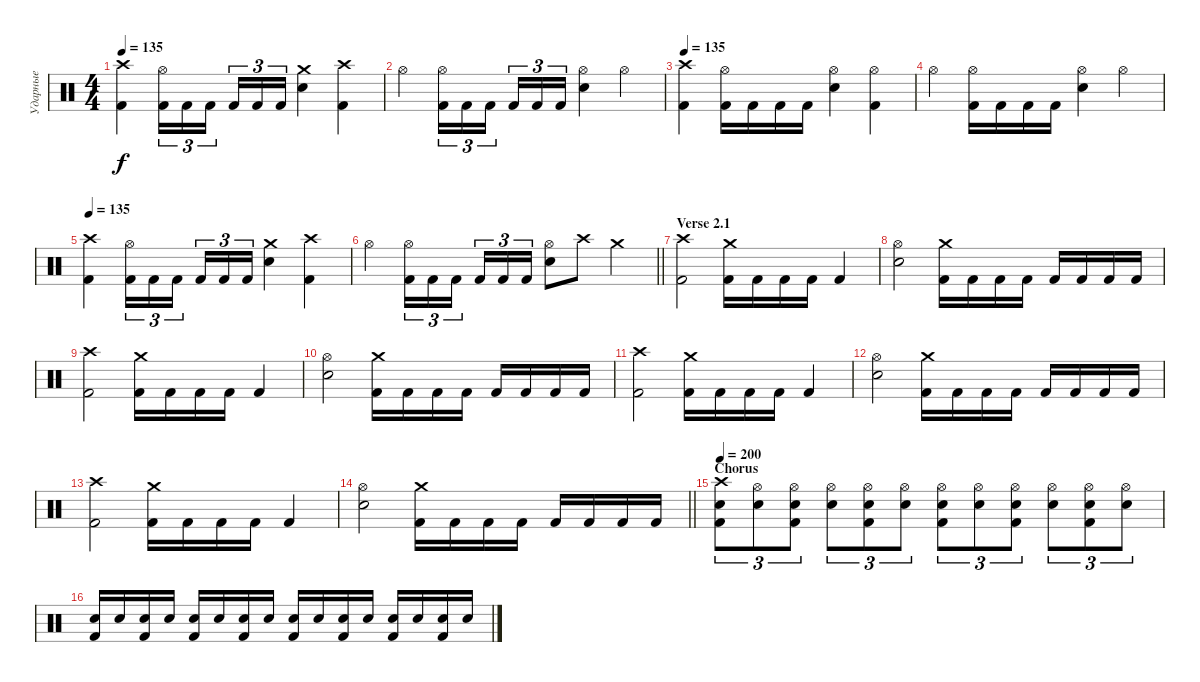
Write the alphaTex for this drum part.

\track ("Ударные" "Ударные") {instrument percussion}
\staff {score}
\articulation defaults
\ts (4 4)
\tempo 135
\clef neutral
\ks c
("Crash high (hit)" "Kick (hit) 2").4{dy f} ("Hi-Hat (open)" "Kick (hit) 2").16{tu (3 2)} "Kick (hit) 2".16{tu (3 2)} "Kick (hit) 2".16{tu (3 2) beam splitsecondary} "Kick (hit) 2".16{tu (3 2)} "Kick (hit) 2".16{tu (3 2)} "Kick (hit) 2".16{tu (3 2)} ("Crash medium (hit)" "Electric Snare (hit)").4 ("Crash high (hit)" "Kick (hit) 2").4 |
"Hi-Hat (open)".4 ("Hi-Hat (open)" "Kick (hit) 2").16{tu (3 2)} "Kick (hit) 2".16{tu (3 2)} "Kick (hit) 2".16{tu (3 2) beam splitsecondary} "Kick (hit) 2".16{tu (3 2)} "Kick (hit) 2".16{tu (3 2)} "Kick (hit) 2".16{tu (3 2)} ("Hi-Hat (open)" "Electric Snare (hit)").4 "Hi-Hat (open)".4 |
\tempo 135
("Crash high (hit)" "Kick (hit) 2").4 ("Hi-Hat (open)" "Kick (hit) 2").16 "Kick (hit) 2".16 "Kick (hit) 2".16 "Kick (hit) 2".16 ("Hi-Hat (open)" "Electric Snare (hit)").4 ("Hi-Hat (open)" "Kick (hit) 2").4 |
"Hi-Hat (open)".4 ("Hi-Hat (open)" "Kick (hit) 2").16 "Kick (hit) 2".16 "Kick (hit) 2".16 "Kick (hit) 2".16 ("Hi-Hat (open)" "Electric Snare (hit)").4 "Hi-Hat (open)".4 |
\tempo 135
("Crash high (hit)" "Kick (hit) 2").4 ("Hi-Hat (open)" "Kick (hit) 2").16{tu (3 2)} "Kick (hit) 2".16{tu (3 2)} "Kick (hit) 2".16{tu (3 2) beam splitsecondary} "Kick (hit) 2".16{tu (3 2)} "Kick (hit) 2".16{tu (3 2)} "Kick (hit) 2".16{tu (3 2)} ("Crash medium (hit)" "Electric Snare (hit)").4 ("Crash high (hit)" "Kick (hit) 2").4 |
\barLineRight lightlight "Hi-Hat (open)".4
("Hi-Hat (open)" "Kick (hit) 2").16{tu (3 2)} "Kick (hit) 2".16{tu (3 2)} "Kick (hit) 2".16{tu (3 2) beam splitsecondary} "Kick (hit) 2".16{tu (3 2)} "Kick (hit) 2".16{tu (3 2)} "Kick (hit) 2".16{tu (3 2)} ("Hi-Hat (open)" "Electric Snare (hit)").8 "Crash high (hit)".8 "Crash medium (hit)".4 |
\section ("" "Verse 2.1")
("Kick (hit) 2" "Crash high (hit)").2 ("Crash medium (hit)" "Kick (hit) 2").16 "Kick (hit) 2".16 "Kick (hit) 2".16 "Kick (hit) 2".16 "Kick (hit) 2".4 |
("Hi-Hat (open)" "Electric Snare (hit)").2 ("Crash medium (hit)" "Kick (hit) 2").16 "Kick (hit) 2".16 "Kick (hit) 2".16 "Kick (hit) 2".16 "Kick (hit) 2".16 "Kick (hit) 2".16 "Kick (hit) 2".16 "Kick (hit) 2".16 |
("Kick (hit) 2" "Crash high (hit)").2 ("Crash medium (hit)" "Kick (hit) 2").16 "Kick (hit) 2".16 "Kick (hit) 2".16 "Kick (hit) 2".16 "Kick (hit) 2".4 |
("Hi-Hat (open)" "Electric Snare (hit)").2 ("Crash medium (hit)" "Kick (hit) 2").16 "Kick (hit) 2".16 "Kick (hit) 2".16 "Kick (hit) 2".16 "Kick (hit) 2".16 "Kick (hit) 2".16 "Kick (hit) 2".16 "Kick (hit) 2".16 |
("Kick (hit) 2" "Crash high (hit)").2 ("Crash medium (hit)" "Kick (hit) 2").16 "Kick (hit) 2".16 "Kick (hit) 2".16 "Kick (hit) 2".16 "Kick (hit) 2".4 |
("Hi-Hat (open)" "Electric Snare (hit)").2 ("Crash medium (hit)" "Kick (hit) 2").16 "Kick (hit) 2".16 "Kick (hit) 2".16 "Kick (hit) 2".16 "Kick (hit) 2".16 "Kick (hit) 2".16 "Kick (hit) 2".16 "Kick (hit) 2".16 |
("Kick (hit) 2" "Crash high (hit)").2 ("Crash medium (hit)" "Kick (hit) 2").16 "Kick (hit) 2".16 "Kick (hit) 2".16 "Kick (hit) 2".16 "Kick (hit) 2".4 |
\barLineRight lightlight
("Hi-Hat (open)" "Electric Snare (hit)").2 ("Crash medium (hit)" "Kick (hit) 2").16 "Kick (hit) 2".16 "Kick (hit) 2".16 "Kick (hit) 2".16 "Kick (hit) 2".16 "Kick (hit) 2".16 "Kick (hit) 2".16 "Kick (hit) 2".16 |
\section ("" "Chorus")
\tempo 200
("Electric Snare (hit)" "Kick (hit) 2" "Crash high (hit)").8{tu (3 2)} ("Electric Snare (hit)" "Hi-Hat (open)").8{tu (3 2)} ("Electric Snare (hit)" "Kick (hit) 2" "Hi-Hat (open)").8{tu (3 2)} ("Electric Snare (hit)" "Hi-Hat (open)").8{tu (3 2)} ("Electric Snare (hit)" "Kick (hit) 2" "Hi-Hat (open)").8{tu (3 2)} ("Electric Snare (hit)" "Hi-Hat (open)").8{tu (3 2)} ("Electric Snare (hit)" "Kick (hit) 2" "Hi-Hat (open)").8{tu (3 2)} ("Electric Snare (hit)" "Hi-Hat (open)").8{tu (3 2)} ("Electric Snare (hit)" "Kick (hit) 2" "Hi-Hat (open)").8{tu (3 2)} ("Electric Snare (hit)" "Hi-Hat (open)").8{tu (3 2)} ("Electric Snare (hit)" "Kick (hit) 2" "Hi-Hat (open)").8{tu (3 2)} ("Electric Snare (hit)" "Hi-Hat (open)").8{tu (3 2)} |
("Electric Snare (hit)" "Kick (hit) 2").16 "Electric Snare (hit)".16 ("Electric Snare (hit)" "Kick (hit) 2").16 "Electric Snare (hit)".16 ("Electric Snare (hit)" "Kick (hit) 2").16 "Electric Snare (hit)".16 ("Electric Snare (hit)" "Kick (hit) 2").16 "Electric Snare (hit)".16 ("Electric Snare (hit)" "Kick (hit) 2").16 "Electric Snare (hit)".16 ("Electric Snare (hit)" "Kick (hit) 2").16 "Electric Snare (hit)".16 ("Electric Snare (hit)" "Kick (hit) 2").16 "Electric Snare (hit)".16 ("Electric Snare (hit)" "Kick (hit) 2").16 "Electric Snare (hit)".16
